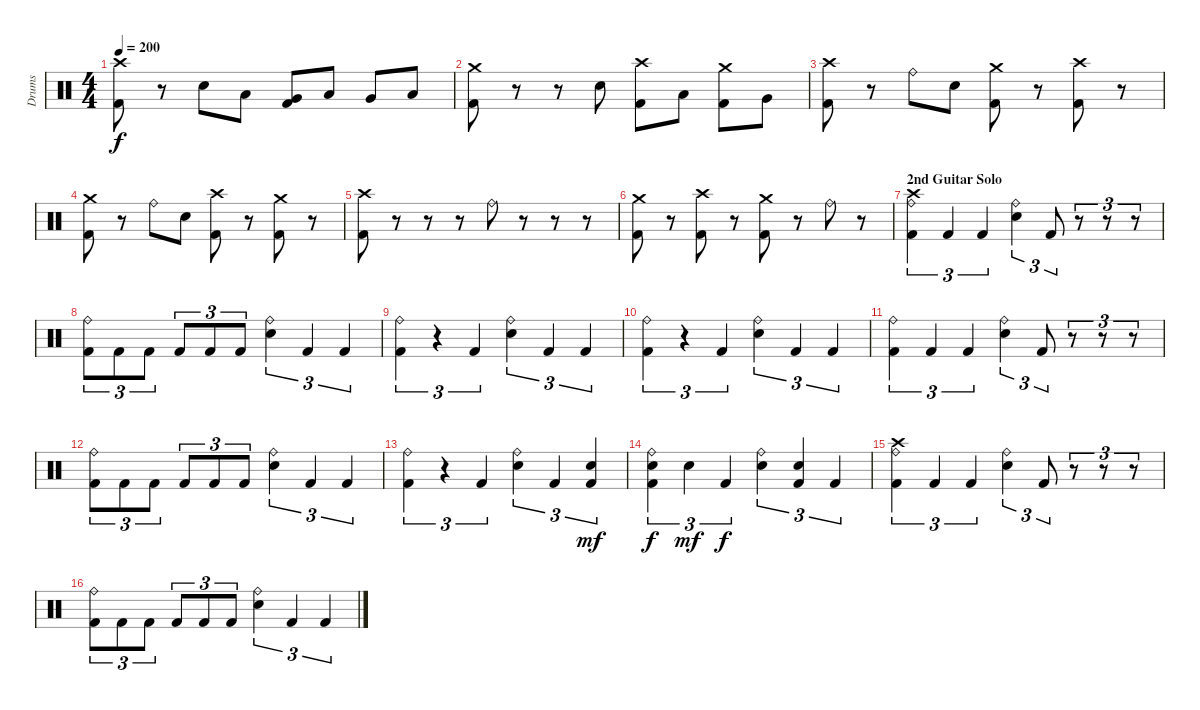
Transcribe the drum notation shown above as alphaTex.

\track ("Drums" "Drums") {instrument percussion}
\staff {score}
\articulation defaults
\ts (4 4)
\tempo 200
\clef neutral
\ks c
("Kick (hit) 2" "Crash high (hit)").8{dy f} r.8 "Electric Snare (hit)".8 "Low Tom (hit)".8 ("Kick (hit) 2" "Very Low Tom (hit)").8 "Low Tom (hit)".8 "Very Low Tom (hit)".8 "Low Floor Tom (hit)".8 |
("Kick (hit) 2" "Crash medium (hit)").8 r.8 r.8 "Electric Snare (hit)".8 ("Kick (hit) 2" "Crash high (hit)").8 "Low Tom (hit)".8 ("Kick (hit) 2" "Crash medium (hit)").8 "Very Low Tom (hit)".8 |
("Kick (hit) 2" "Crash high (hit)").8 r.8 "Ride (bell)".8 "Electric Snare (hit)".8 ("Kick (hit) 2" "Crash medium (hit)").8 r.8 ("Kick (hit) 2" "Crash high (hit)").8 r.8 |
("Kick (hit) 2" "Crash medium (hit)").8 r.8 "Ride (bell)".8 "Electric Snare (hit)".8 ("Kick (hit) 2" "Crash high (hit)").8 r.8 ("Kick (hit) 2" "Crash medium (hit)").8 r.8 |
("Kick (hit) 2" "Crash high (hit)").8 r.8 r.8 r.8 "Ride (bell)".8 r.8 r.8 r.8 |
("Kick (hit) 2" "Crash medium (hit)").8 r.8 ("Kick (hit) 2" "Crash high (hit)").8 r.8 ("Kick (hit) 2" "Crash medium (hit)").8 r.8 "Ride (bell)".8 r.8 |
\section ("" "2nd Guitar Solo")
("Kick (hit) 2" "Ride (bell)" "Crash high (hit)").4{tu (3 2)} "Kick (hit) 2".4{tu (3 2)} "Kick (hit) 2".4{tu (3 2)} ("Electric Snare (hit)" "Ride (bell)").4{tu (3 2)} "Kick (hit) 2".8{tu (3 2)} r.8{tu (3 2)} r.8{tu (3 2)} r.8{tu (3 2)} |
("Kick (hit) 2" "Ride (bell)").8{tu (3 2)} "Kick (hit) 2".8{tu (3 2)} "Kick (hit) 2".8{tu (3 2)} "Kick (hit) 2".8{tu (3 2)} "Kick (hit) 2".8{tu (3 2)} "Kick (hit) 2".8{tu (3 2)} ("Electric Snare (hit)" "Ride (bell)").4{tu (3 2)} "Kick (hit) 2".4{tu (3 2)} "Kick (hit) 2".4{tu (3 2)} |
("Kick (hit) 2" "Ride (bell)").4{tu (3 2)} r.4{tu (3 2)} "Kick (hit) 2".4{tu (3 2)} ("Electric Snare (hit)" "Ride (bell)").4{tu (3 2)} "Kick (hit) 2".4{tu (3 2)} "Kick (hit) 2".4{tu (3 2)} |
("Kick (hit) 2" "Ride (bell)").4{tu (3 2)} r.4{tu (3 2)} "Kick (hit) 2".4{tu (3 2)} ("Electric Snare (hit)" "Ride (bell)").4{tu (3 2)} "Kick (hit) 2".4{tu (3 2)} "Kick (hit) 2".4{tu (3 2)} |
("Kick (hit) 2" "Ride (bell)").4{tu (3 2)} "Kick (hit) 2".4{tu (3 2)} "Kick (hit) 2".4{tu (3 2)} ("Electric Snare (hit)" "Ride (bell)").4{tu (3 2)} "Kick (hit) 2".8{tu (3 2)} r.8{tu (3 2)} r.8{tu (3 2)} r.8{tu (3 2)} |
("Kick (hit) 2" "Ride (bell)").8{tu (3 2)} "Kick (hit) 2".8{tu (3 2)} "Kick (hit) 2".8{tu (3 2)} "Kick (hit) 2".8{tu (3 2)} "Kick (hit) 2".8{tu (3 2)} "Kick (hit) 2".8{tu (3 2)} ("Electric Snare (hit)" "Ride (bell)").4{tu (3 2)} "Kick (hit) 2".4{tu (3 2)} "Kick (hit) 2".4{tu (3 2)} |
("Kick (hit) 2" "Ride (bell)").4{tu (3 2)} r.4{tu (3 2)} "Kick (hit) 2".4{tu (3 2)} ("Electric Snare (hit)" "Ride (bell)").4{tu (3 2)} "Kick (hit) 2".4{tu (3 2)} ("Kick (hit) 2" "Electric Snare (hit)").4{tu (3 2) dy mf} |
("Kick (hit) 2" "Electric Snare (hit)" "Ride (bell)").4{tu (3 2) dy f} "Electric Snare (hit)".4{tu (3 2) dy mf} "Kick (hit) 2".4{tu (3 2) dy f} ("Electric Snare (hit)" "Ride (bell)").4{tu (3 2)} ("Kick (hit) 2" "Electric Snare (hit)").4{tu (3 2)} "Kick (hit) 2".4{tu (3 2)} |
("Kick (hit) 2" "Ride (bell)" "Crash high (hit)").4{tu (3 2)} "Kick (hit) 2".4{tu (3 2)} "Kick (hit) 2".4{tu (3 2)} ("Electric Snare (hit)" "Ride (bell)").4{tu (3 2)} "Kick (hit) 2".8{tu (3 2)} r.8{tu (3 2)} r.8{tu (3 2)} r.8{tu (3 2)} |
("Kick (hit) 2" "Ride (bell)").8{tu (3 2)} "Kick (hit) 2".8{tu (3 2)} "Kick (hit) 2".8{tu (3 2)} "Kick (hit) 2".8{tu (3 2)} "Kick (hit) 2".8{tu (3 2)} "Kick (hit) 2".8{tu (3 2)} ("Electric Snare (hit)" "Ride (bell)").4{tu (3 2)} "Kick (hit) 2".4{tu (3 2)} "Kick (hit) 2".4{tu (3 2)}
